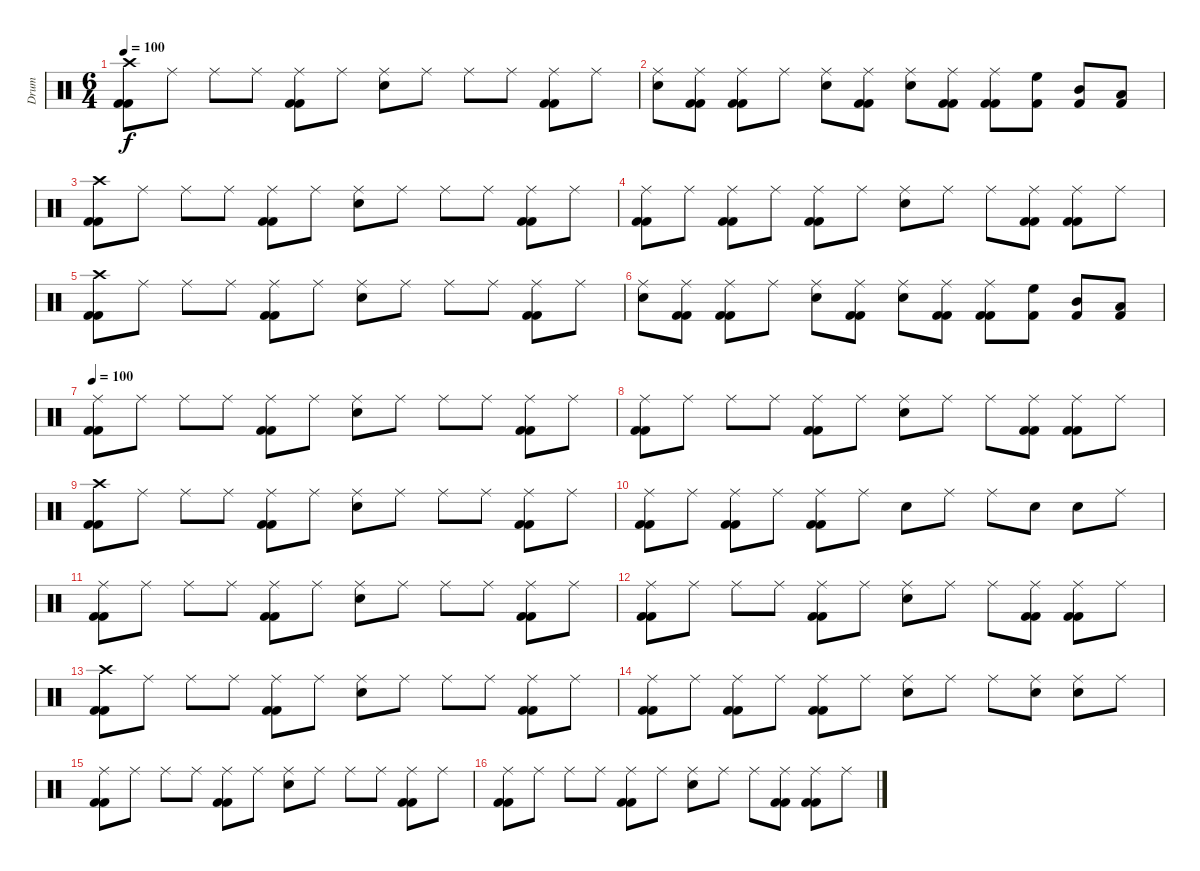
\track ("Drum" "Drum") {instrument percussion}
\staff {score}
\articulation defaults
\ts (6 4)
\tempo 100
\clef neutral
\ks c
("Crash high (hit)" "Kick (hit) 2" "Kick (hit) 2").8{dy f} "Ride (middle)".8 "Ride (middle)".8 "Ride (middle)".8 ("Ride (middle)" "Kick (hit) 2" "Kick (hit) 2").8 "Ride (middle)".8 ("Ride (middle)" "Electric Snare (hit)").8 "Ride (middle)".8 "Ride (middle)".8 "Ride (middle)".8 ("Ride (middle)" "Kick (hit) 2" "Kick (hit) 2").8 "Ride (middle)".8 |
("Ride (middle)" "Electric Snare (hit)").8 ("Ride (middle)" "Kick (hit) 2" "Kick (hit) 2").8 ("Ride (middle)" "Kick (hit) 2" "Kick (hit) 2").8 "Ride (middle)".8 ("Ride (middle)" "Electric Snare (hit)").8 ("Ride (middle)" "Kick (hit) 2" "Kick (hit) 2").8 ("Ride (middle)" "Electric Snare (hit)").8 ("Ride (middle)" "Kick (hit) 2" "Kick (hit) 2").8 ("Ride (middle)" "Kick (hit) 2" "Kick (hit) 2").8 ("Kick (hit) 2" "High Floor Tom (hit)").8 ("Kick (hit) 2" "Mid Tom (hit)").8 ("Kick (hit) 2" "Low Tom (hit)").8 |
("Crash high (hit)" "Kick (hit) 2" "Kick (hit) 2").8 "Ride (middle)".8 "Ride (middle)".8 "Ride (middle)".8 ("Ride (middle)" "Kick (hit) 2" "Kick (hit) 2").8 "Ride (middle)".8 ("Ride (middle)" "Electric Snare (hit)").8 "Ride (middle)".8 "Ride (middle)".8 "Ride (middle)".8 ("Ride (middle)" "Kick (hit) 2" "Kick (hit) 2").8 "Ride (middle)".8 |
("Ride (middle)" "Kick (hit) 2" "Kick (hit) 2").8 "Ride (middle)".8 ("Ride (middle)" "Kick (hit) 2" "Kick (hit) 2").8 "Ride (middle)".8 ("Ride (middle)" "Kick (hit) 2" "Kick (hit) 2").8 "Ride (middle)".8 ("Ride (middle)" "Electric Snare (hit)").8 "Ride (middle)".8 "Ride (middle)".8 ("Ride (middle)" "Kick (hit) 2" "Kick (hit) 2").8 ("Ride (middle)" "Kick (hit) 2" "Kick (hit) 2").8 "Ride (middle)".8 |
("Crash high (hit)" "Kick (hit) 2" "Kick (hit) 2").8 "Ride (middle)".8 "Ride (middle)".8 "Ride (middle)".8 ("Ride (middle)" "Kick (hit) 2" "Kick (hit) 2").8 "Ride (middle)".8 ("Ride (middle)" "Electric Snare (hit)").8 "Ride (middle)".8 "Ride (middle)".8 "Ride (middle)".8 ("Ride (middle)" "Kick (hit) 2" "Kick (hit) 2").8 "Ride (middle)".8 |
("Ride (middle)" "Electric Snare (hit)").8 ("Ride (middle)" "Kick (hit) 2" "Kick (hit) 2").8 ("Ride (middle)" "Kick (hit) 2" "Kick (hit) 2").8 "Ride (middle)".8 ("Ride (middle)" "Electric Snare (hit)").8 ("Ride (middle)" "Kick (hit) 2" "Kick (hit) 2").8 ("Ride (middle)" "Electric Snare (hit)").8 ("Ride (middle)" "Kick (hit) 2" "Kick (hit) 2").8 ("Ride (middle)" "Kick (hit) 2" "Kick (hit) 2").8 ("Kick (hit) 2" "High Floor Tom (hit)").8 ("Kick (hit) 2" "Mid Tom (hit)").8 ("Kick (hit) 2" "Low Tom (hit)").8 |
\tempo 100
("Ride (middle)" "Kick (hit) 2" "Kick (hit) 2").8 "Ride (middle)".8 "Ride (middle)".8 "Ride (middle)".8 ("Ride (middle)" "Kick (hit) 2" "Kick (hit) 2").8 "Ride (middle)".8 ("Ride (middle)" "Electric Snare (hit)").8 "Ride (middle)".8 "Ride (middle)".8 "Ride (middle)".8 ("Ride (middle)" "Kick (hit) 2" "Kick (hit) 2").8 "Ride (middle)".8 |
("Ride (middle)" "Kick (hit) 2" "Kick (hit) 2").8 "Ride (middle)".8 "Ride (middle)".8 "Ride (middle)".8 ("Ride (middle)" "Kick (hit) 2" "Kick (hit) 2").8 "Ride (middle)".8 ("Ride (middle)" "Electric Snare (hit)").8 "Ride (middle)".8 "Ride (middle)".8 ("Ride (middle)" "Kick (hit) 2" "Kick (hit) 2").8 ("Ride (middle)" "Kick (hit) 2" "Kick (hit) 2").8 "Ride (middle)".8 |
("Crash high (hit)" "Kick (hit) 2" "Kick (hit) 2").8 "Ride (middle)".8 "Ride (middle)".8 "Ride (middle)".8 ("Ride (middle)" "Kick (hit) 2" "Kick (hit) 2").8 "Ride (middle)".8 ("Ride (middle)" "Electric Snare (hit)").8 "Ride (middle)".8 "Ride (middle)".8 "Ride (middle)".8 ("Ride (middle)" "Kick (hit) 2" "Kick (hit) 2").8 "Ride (middle)".8 |
("Ride (middle)" "Kick (hit) 2" "Kick (hit) 2").8 "Ride (middle)".8 ("Ride (middle)" "Kick (hit) 2" "Kick (hit) 2").8 "Ride (middle)".8 ("Ride (middle)" "Kick (hit) 2" "Kick (hit) 2").8 "Ride (middle)".8 "Electric Snare (hit)".8 "Ride (middle)".8 "Ride (middle)".8 "Electric Snare (hit)".8 "Electric Snare (hit)".8 "Ride (middle)".8 |
("Ride (middle)" "Kick (hit) 2" "Kick (hit) 2").8 "Ride (middle)".8 "Ride (middle)".8 "Ride (middle)".8 ("Ride (middle)" "Kick (hit) 2" "Kick (hit) 2").8 "Ride (middle)".8 ("Ride (middle)" "Electric Snare (hit)").8 "Ride (middle)".8 "Ride (middle)".8 "Ride (middle)".8 ("Ride (middle)" "Kick (hit) 2" "Kick (hit) 2").8 "Ride (middle)".8 |
("Ride (middle)" "Kick (hit) 2" "Kick (hit) 2").8 "Ride (middle)".8 "Ride (middle)".8 "Ride (middle)".8 ("Ride (middle)" "Kick (hit) 2" "Kick (hit) 2").8 "Ride (middle)".8 ("Ride (middle)" "Electric Snare (hit)").8 "Ride (middle)".8 "Ride (middle)".8 ("Ride (middle)" "Kick (hit) 2" "Kick (hit) 2").8 ("Ride (middle)" "Kick (hit) 2" "Kick (hit) 2").8 "Ride (middle)".8 |
("Crash high (hit)" "Kick (hit) 2" "Kick (hit) 2").8 "Ride (middle)".8 "Ride (middle)".8 "Ride (middle)".8 ("Ride (middle)" "Kick (hit) 2" "Kick (hit) 2").8 "Ride (middle)".8 ("Ride (middle)" "Electric Snare (hit)").8 "Ride (middle)".8 "Ride (middle)".8 "Ride (middle)".8 ("Ride (middle)" "Kick (hit) 2" "Kick (hit) 2").8 "Ride (middle)".8 |
("Ride (middle)" "Kick (hit) 2" "Kick (hit) 2").8 "Ride (middle)".8 ("Ride (middle)" "Kick (hit) 2" "Kick (hit) 2").8 "Ride (middle)".8 ("Ride (middle)" "Kick (hit) 2" "Kick (hit) 2").8 "Ride (middle)".8 ("Ride (middle)" "Electric Snare (hit)").8 "Ride (middle)".8 "Ride (middle)".8 ("Ride (middle)" "Electric Snare (hit)").8 ("Ride (middle)" "Electric Snare (hit)").8 "Ride (middle)".8 |
("Ride (middle)" "Kick (hit) 2" "Kick (hit) 2").8 "Ride (middle)".8 "Ride (middle)".8 "Ride (middle)".8 ("Ride (middle)" "Kick (hit) 2" "Kick (hit) 2").8 "Ride (middle)".8 ("Ride (middle)" "Electric Snare (hit)").8 "Ride (middle)".8 "Ride (middle)".8 "Ride (middle)".8 ("Ride (middle)" "Kick (hit) 2" "Kick (hit) 2").8 "Ride (middle)".8 |
("Ride (middle)" "Kick (hit) 2" "Kick (hit) 2").8 "Ride (middle)".8 "Ride (middle)".8 "Ride (middle)".8 ("Ride (middle)" "Kick (hit) 2" "Kick (hit) 2").8 "Ride (middle)".8 ("Ride (middle)" "Electric Snare (hit)").8 "Ride (middle)".8 "Ride (middle)".8 ("Ride (middle)" "Kick (hit) 2" "Kick (hit) 2").8 ("Ride (middle)" "Kick (hit) 2" "Kick (hit) 2").8 "Ride (middle)".8
